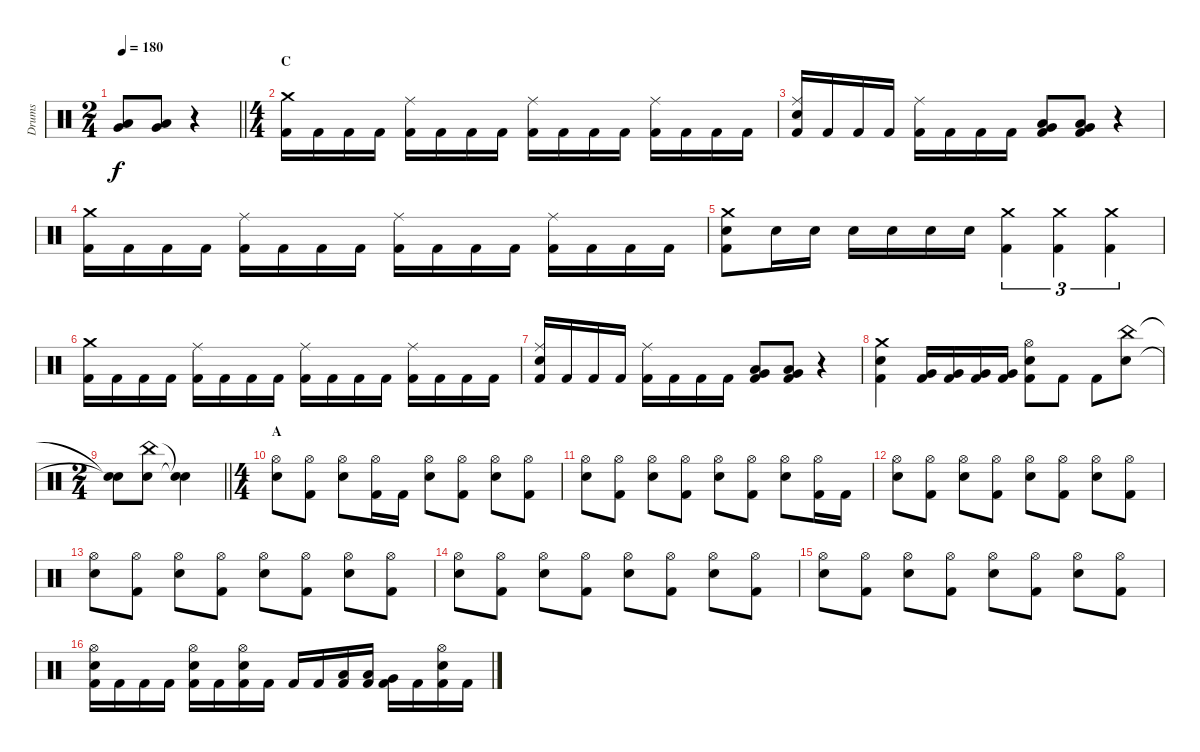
\track ("Drums" "Drums") {instrument percussion}
\staff {score}
\articulation defaults
\ts (2 4)
\tempo 180
\clef neutral
\barLineRight lightlight
\ks c
("Low Tom (hit)" "Very Low Tom (hit)").8{dy f} ("Low Tom (hit)" "Very Low Tom (hit)").8 r.4 |
\ts (4 4)
\section ("" "C")
("Crash medium (hit)" "Kick (hit) 2").16 "Kick (hit) 2".16 "Kick (hit) 2".16 "Kick (hit) 2".16 ("Ride (middle)" "Kick (hit) 2").16 "Kick (hit) 2".16 "Kick (hit) 2".16 "Kick (hit) 2".16 ("Ride (middle)" "Kick (hit) 2").16 "Kick (hit) 2".16 "Kick (hit) 2".16 "Kick (hit) 2".16 ("Ride (middle)" "Kick (hit) 2").16 "Kick (hit) 2".16 "Kick (hit) 2".16 "Kick (hit) 2".16 |
("Ride (middle)" "Electric Snare (hit)" "Kick (hit) 2").16 "Kick (hit) 2".16 "Kick (hit) 2".16 "Kick (hit) 2".16 ("Ride (middle)" "Kick (hit) 2").16 "Kick (hit) 2".16 "Kick (hit) 2".16 "Kick (hit) 2".16 ("Very Low Tom (hit)" "Low Floor Tom (hit)" "Kick (hit) 2").8 ("Very Low Tom (hit)" "Low Floor Tom (hit)" "Kick (hit) 2").8 r.4 |
("Crash medium (hit)" "Kick (hit) 2").16 "Kick (hit) 2".16 "Kick (hit) 2".16 "Kick (hit) 2".16 ("Ride (middle)" "Kick (hit) 2").16 "Kick (hit) 2".16 "Kick (hit) 2".16 "Kick (hit) 2".16 ("Ride (middle)" "Kick (hit) 2").16 "Kick (hit) 2".16 "Kick (hit) 2".16 "Kick (hit) 2".16 ("Ride (middle)" "Kick (hit) 2").16 "Kick (hit) 2".16 "Kick (hit) 2".16 "Kick (hit) 2".16 |
("Crash medium (hit)" "Electric Snare (hit)" "Kick (hit) 2").8 "Electric Snare (hit)".16 "Electric Snare (hit)".16 "Electric Snare (hit)".16 "Electric Snare (hit)".16 "Electric Snare (hit)".16 "Electric Snare (hit)".16 ("Crash medium (hit)" "Kick (hit) 2").4{tu (3 2)} ("Crash medium (hit)" "Kick (hit) 2").4{tu (3 2)} ("Crash medium (hit)" "Kick (hit) 2").4{tu (3 2)} |
("Crash medium (hit)" "Kick (hit) 2").16 "Kick (hit) 2".16 "Kick (hit) 2".16 "Kick (hit) 2".16 ("Ride (middle)" "Kick (hit) 2").16 "Kick (hit) 2".16 "Kick (hit) 2".16 "Kick (hit) 2".16 ("Ride (middle)" "Kick (hit) 2").16 "Kick (hit) 2".16 "Kick (hit) 2".16 "Kick (hit) 2".16 ("Ride (middle)" "Kick (hit) 2").16 "Kick (hit) 2".16 "Kick (hit) 2".16 "Kick (hit) 2".16 |
("Ride (middle)" "Electric Snare (hit)" "Kick (hit) 2").16 "Kick (hit) 2".16 "Kick (hit) 2".16 "Kick (hit) 2".16 ("Ride (middle)" "Kick (hit) 2").16 "Kick (hit) 2".16 "Kick (hit) 2".16 "Kick (hit) 2".16 ("Very Low Tom (hit)" "Low Floor Tom (hit)" "Kick (hit) 2").8 ("Very Low Tom (hit)" "Low Floor Tom (hit)" "Kick (hit) 2").8 r.4 |
("Crash medium (hit)" "Electric Snare (hit)" "Kick (hit) 2").4 ("Very Low Tom (hit)" "Kick (hit) 2").16 ("Very Low Tom (hit)" "Kick (hit) 2").16 ("Very Low Tom (hit)" "Kick (hit) 2").16 ("Very Low Tom (hit)" "Kick (hit) 2").16 ("Hi-Hat (open)" "Electric Snare (hit)" "Kick (hit) 2").8 "Kick (hit) 2".8 "Kick (hit) 2".8 ("China (hit)" "Electric Snare (hit)").8 |
\ts (2 4)
\barLineRight lightlight
("Snare (hit)"{t} "Snare (hit)"{t}).8 ("China (hit)" "Electric Snare (hit)").8 ("Snare (hit)"{t} "Snare (hit)"{t}).4 |
\ts (4 4)
\section ("" "A")
("Hi-Hat (open)" "Electric Snare (hit)").8 ("Hi-Hat (open)" "Kick (hit) 2").8 ("Hi-Hat (open)" "Electric Snare (hit)").8 ("Hi-Hat (open)" "Kick (hit) 2").16 "Kick (hit) 2".16 ("Hi-Hat (open)" "Electric Snare (hit)").8 ("Hi-Hat (open)" "Kick (hit) 2").8 ("Hi-Hat (open)" "Electric Snare (hit)").8 ("Hi-Hat (open)" "Kick (hit) 2").8 |
("Hi-Hat (open)" "Electric Snare (hit)").8 ("Hi-Hat (open)" "Kick (hit) 2").8 ("Hi-Hat (open)" "Electric Snare (hit)").8 ("Hi-Hat (open)" "Kick (hit) 2").8 ("Hi-Hat (open)" "Electric Snare (hit)").8 ("Hi-Hat (open)" "Kick (hit) 2").8 ("Hi-Hat (open)" "Electric Snare (hit)").8 ("Hi-Hat (open)" "Kick (hit) 2").16 "Kick (hit) 2".16 |
("Hi-Hat (open)" "Electric Snare (hit)").8 ("Hi-Hat (open)" "Kick (hit) 2").8 ("Hi-Hat (open)" "Electric Snare (hit)").8 ("Hi-Hat (open)" "Kick (hit) 2").8 ("Hi-Hat (open)" "Electric Snare (hit)").8 ("Hi-Hat (open)" "Kick (hit) 2").8 ("Hi-Hat (open)" "Electric Snare (hit)").8 ("Hi-Hat (open)" "Kick (hit) 2").8 |
("Hi-Hat (open)" "Electric Snare (hit)").8 ("Hi-Hat (open)" "Kick (hit) 2").8 ("Hi-Hat (open)" "Electric Snare (hit)").8 ("Hi-Hat (open)" "Kick (hit) 2").8 ("Hi-Hat (open)" "Electric Snare (hit)").8 ("Hi-Hat (open)" "Kick (hit) 2").8 ("Hi-Hat (open)" "Electric Snare (hit)").8 ("Hi-Hat (open)" "Kick (hit) 2").8 |
("Hi-Hat (open)" "Electric Snare (hit)").8 ("Hi-Hat (open)" "Kick (hit) 2").8 ("Hi-Hat (open)" "Electric Snare (hit)").8 ("Hi-Hat (open)" "Kick (hit) 2").8 ("Hi-Hat (open)" "Electric Snare (hit)").8 ("Hi-Hat (open)" "Kick (hit) 2").8 ("Hi-Hat (open)" "Electric Snare (hit)").8 ("Hi-Hat (open)" "Kick (hit) 2").8 |
("Hi-Hat (open)" "Electric Snare (hit)").8 ("Hi-Hat (open)" "Kick (hit) 2").8 ("Hi-Hat (open)" "Electric Snare (hit)").8 ("Hi-Hat (open)" "Kick (hit) 2").8 ("Hi-Hat (open)" "Electric Snare (hit)").8 ("Hi-Hat (open)" "Kick (hit) 2").8 ("Hi-Hat (open)" "Electric Snare (hit)").8 ("Hi-Hat (open)" "Kick (hit) 2").8 |
("Hi-Hat (open)" "Electric Snare (hit)" "Kick (hit) 2").16 "Kick (hit) 2".16 "Kick (hit) 2".16 "Kick (hit) 2".16 ("Hi-Hat (open)" "Electric Snare (hit)" "Kick (hit) 2").16 "Kick (hit) 2".16 ("Hi-Hat (open)" "Electric Snare (hit)" "Kick (hit) 2").16 "Kick (hit) 2".16 "Kick (hit) 2".16 "Kick (hit) 2".16 ("Low Tom (hit)" "Kick (hit) 2").16 ("Low Tom (hit)" "Kick (hit) 2").16 ("Very Low Tom (hit)" "Kick (hit) 2").16 "Kick (hit) 2".16 ("Hi-Hat (open)" "Electric Snare (hit)" "Kick (hit) 2").16 "Kick (hit) 2".16
